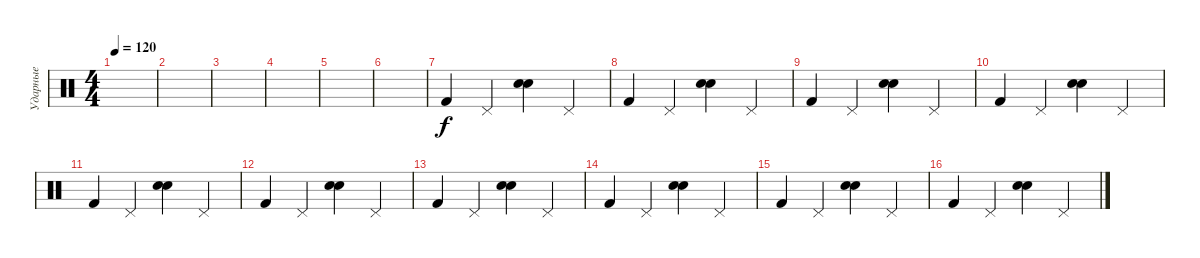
\track ("Ударные" "Ударные") {instrument percussion}
\staff {score}
\articulation defaults
\ts (4 4)
\tempo 120
\clef neutral
\ks c
|
|
|
|
|
|
"Kick (hit) 2".4 "Pedal Hi-Hat (hit)".4 ("Snare (hit) 2" "Electric Snare (hit)").4 "Pedal Hi-Hat (hit)".4 |
"Kick (hit) 2".4 "Pedal Hi-Hat (hit)".4 ("Snare (hit) 2" "Electric Snare (hit)").4 "Pedal Hi-Hat (hit)".4 |
"Kick (hit) 2".4 "Pedal Hi-Hat (hit)".4 ("Snare (hit) 2" "Electric Snare (hit)").4 "Pedal Hi-Hat (hit)".4 |
"Kick (hit) 2".4 "Pedal Hi-Hat (hit)".4 ("Snare (hit) 2" "Electric Snare (hit)").4 "Pedal Hi-Hat (hit)".4 |
"Kick (hit) 2".4 "Pedal Hi-Hat (hit)".4 ("Snare (hit) 2" "Electric Snare (hit)").4 "Pedal Hi-Hat (hit)".4 |
"Kick (hit) 2".4 "Pedal Hi-Hat (hit)".4 ("Snare (hit) 2" "Electric Snare (hit)").4 "Pedal Hi-Hat (hit)".4 |
"Kick (hit) 2".4 "Pedal Hi-Hat (hit)".4 ("Snare (hit) 2" "Electric Snare (hit)").4 "Pedal Hi-Hat (hit)".4 |
"Kick (hit) 2".4 "Pedal Hi-Hat (hit)".4 ("Snare (hit) 2" "Electric Snare (hit)").4 "Pedal Hi-Hat (hit)".4 |
"Kick (hit) 2".4 "Pedal Hi-Hat (hit)".4 ("Snare (hit) 2" "Electric Snare (hit)").4 "Pedal Hi-Hat (hit)".4 |
"Kick (hit) 2".4 "Pedal Hi-Hat (hit)".4 ("Snare (hit) 2" "Electric Snare (hit)").4 "Pedal Hi-Hat (hit)".4
